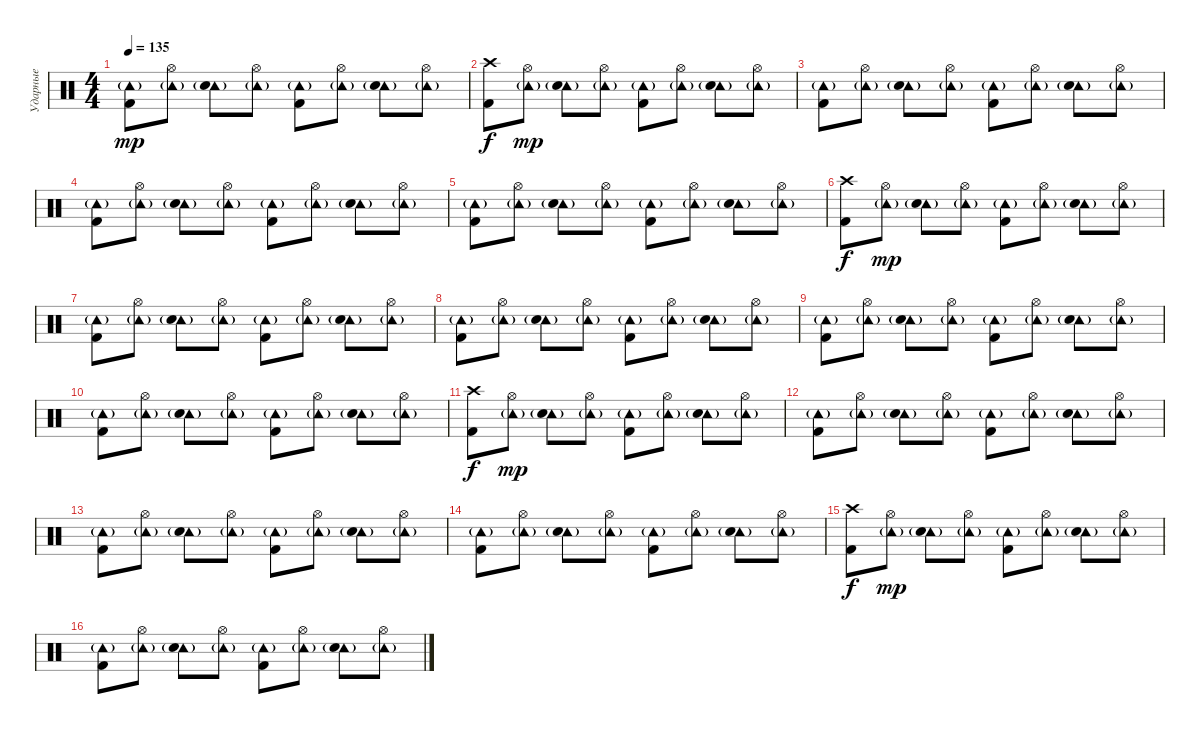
\track ("Ударные" "Ударные") {instrument percussion}
\staff {score}
\articulation defaults
\ts (4 4)
\tempo 135
\clef neutral
\ks c
("Tambourine (hit)"{g} "Kick (hit) 2").8{dy mp} ("Tambourine (hit)"{g} "Hi-Hat (open)").8 ("Tambourine (hit)"{g} "Electric Snare (hit)").8 ("Tambourine (hit)"{g} "Hi-Hat (open)").8 ("Tambourine (hit)"{g} "Kick (hit) 2").8 ("Tambourine (hit)"{g} "Hi-Hat (open)").8 ("Tambourine (hit)"{g} "Electric Snare (hit)").8 ("Tambourine (hit)"{g} "Hi-Hat (open)").8 |
("Crash high (hit)" "Kick (hit) 2").8{dy f} ("Tambourine (hit)"{g} "Hi-Hat (open)").8{dy mp} ("Tambourine (hit)"{g} "Electric Snare (hit)").8 ("Tambourine (hit)"{g} "Hi-Hat (open)").8 ("Tambourine (hit)"{g} "Kick (hit) 2").8 ("Tambourine (hit)"{g} "Hi-Hat (open)").8 ("Tambourine (hit)"{g} "Electric Snare (hit)").8 ("Tambourine (hit)"{g} "Hi-Hat (open)").8 |
("Tambourine (hit)"{g} "Kick (hit) 2").8 ("Tambourine (hit)"{g} "Hi-Hat (open)").8 ("Tambourine (hit)"{g} "Electric Snare (hit)").8 ("Tambourine (hit)"{g} "Hi-Hat (open)").8 ("Tambourine (hit)"{g} "Kick (hit) 2").8 ("Tambourine (hit)"{g} "Hi-Hat (open)").8 ("Tambourine (hit)"{g} "Electric Snare (hit)").8 ("Tambourine (hit)"{g} "Hi-Hat (open)").8 |
("Tambourine (hit)"{g} "Kick (hit) 2").8 ("Tambourine (hit)"{g} "Hi-Hat (open)").8 ("Tambourine (hit)"{g} "Electric Snare (hit)").8 ("Tambourine (hit)"{g} "Hi-Hat (open)").8 ("Tambourine (hit)"{g} "Kick (hit) 2").8 ("Tambourine (hit)"{g} "Hi-Hat (open)").8 ("Tambourine (hit)"{g} "Electric Snare (hit)").8 ("Tambourine (hit)"{g} "Hi-Hat (open)").8 |
("Tambourine (hit)"{g} "Kick (hit) 2").8 ("Tambourine (hit)"{g} "Hi-Hat (open)").8 ("Tambourine (hit)"{g} "Electric Snare (hit)").8 ("Tambourine (hit)"{g} "Hi-Hat (open)").8 ("Tambourine (hit)"{g} "Kick (hit) 2").8 ("Tambourine (hit)"{g} "Hi-Hat (open)").8 ("Tambourine (hit)"{g} "Electric Snare (hit)").8 ("Tambourine (hit)"{g} "Hi-Hat (open)").8 |
("Crash high (hit)" "Kick (hit) 2").8{dy f} ("Tambourine (hit)"{g} "Hi-Hat (open)").8{dy mp} ("Tambourine (hit)"{g} "Electric Snare (hit)").8 ("Tambourine (hit)"{g} "Hi-Hat (open)").8 ("Tambourine (hit)"{g} "Kick (hit) 2").8 ("Tambourine (hit)"{g} "Hi-Hat (open)").8 ("Tambourine (hit)"{g} "Electric Snare (hit)").8 ("Tambourine (hit)"{g} "Hi-Hat (open)").8 |
("Tambourine (hit)"{g} "Kick (hit) 2").8 ("Tambourine (hit)"{g} "Hi-Hat (open)").8 ("Tambourine (hit)"{g} "Electric Snare (hit)").8 ("Tambourine (hit)"{g} "Hi-Hat (open)").8 ("Tambourine (hit)"{g} "Kick (hit) 2").8 ("Tambourine (hit)"{g} "Hi-Hat (open)").8 ("Tambourine (hit)"{g} "Electric Snare (hit)").8 ("Tambourine (hit)"{g} "Hi-Hat (open)").8 |
("Tambourine (hit)"{g} "Kick (hit) 2").8 ("Tambourine (hit)"{g} "Hi-Hat (open)").8 ("Tambourine (hit)"{g} "Electric Snare (hit)").8 ("Tambourine (hit)"{g} "Hi-Hat (open)").8 ("Tambourine (hit)"{g} "Kick (hit) 2").8 ("Tambourine (hit)"{g} "Hi-Hat (open)").8 ("Tambourine (hit)"{g} "Electric Snare (hit)").8 ("Tambourine (hit)"{g} "Hi-Hat (open)").8 |
("Tambourine (hit)"{g} "Kick (hit) 2").8 ("Tambourine (hit)"{g} "Hi-Hat (open)").8 ("Tambourine (hit)"{g} "Electric Snare (hit)").8 ("Tambourine (hit)"{g} "Hi-Hat (open)").8 ("Tambourine (hit)"{g} "Kick (hit) 2").8 ("Tambourine (hit)"{g} "Hi-Hat (open)").8 ("Tambourine (hit)"{g} "Electric Snare (hit)").8 ("Tambourine (hit)"{g} "Hi-Hat (open)").8 |
("Tambourine (hit)"{g} "Kick (hit) 2").8 ("Tambourine (hit)"{g} "Hi-Hat (open)").8 ("Tambourine (hit)"{g} "Electric Snare (hit)").8 ("Tambourine (hit)"{g} "Hi-Hat (open)").8 ("Tambourine (hit)"{g} "Kick (hit) 2").8 ("Tambourine (hit)"{g} "Hi-Hat (open)").8 ("Tambourine (hit)"{g} "Electric Snare (hit)").8 ("Tambourine (hit)"{g} "Hi-Hat (open)").8 |
("Crash high (hit)" "Kick (hit) 2").8{dy f} ("Tambourine (hit)"{g} "Hi-Hat (open)").8{dy mp} ("Tambourine (hit)"{g} "Electric Snare (hit)").8 ("Tambourine (hit)"{g} "Hi-Hat (open)").8 ("Tambourine (hit)"{g} "Kick (hit) 2").8 ("Tambourine (hit)"{g} "Hi-Hat (open)").8 ("Tambourine (hit)"{g} "Electric Snare (hit)").8 ("Tambourine (hit)"{g} "Hi-Hat (open)").8 |
("Tambourine (hit)"{g} "Kick (hit) 2").8 ("Tambourine (hit)"{g} "Hi-Hat (open)").8 ("Tambourine (hit)"{g} "Electric Snare (hit)").8 ("Tambourine (hit)"{g} "Hi-Hat (open)").8 ("Tambourine (hit)"{g} "Kick (hit) 2").8 ("Tambourine (hit)"{g} "Hi-Hat (open)").8 ("Tambourine (hit)"{g} "Electric Snare (hit)").8 ("Tambourine (hit)"{g} "Hi-Hat (open)").8 |
("Tambourine (hit)"{g} "Kick (hit) 2").8 ("Tambourine (hit)"{g} "Hi-Hat (open)").8 ("Tambourine (hit)"{g} "Electric Snare (hit)").8 ("Tambourine (hit)"{g} "Hi-Hat (open)").8 ("Tambourine (hit)"{g} "Kick (hit) 2").8 ("Tambourine (hit)"{g} "Hi-Hat (open)").8 ("Tambourine (hit)"{g} "Electric Snare (hit)").8 ("Tambourine (hit)"{g} "Hi-Hat (open)").8 |
("Tambourine (hit)"{g} "Kick (hit) 2").8 ("Tambourine (hit)"{g} "Hi-Hat (open)").8 ("Tambourine (hit)"{g} "Electric Snare (hit)").8 ("Tambourine (hit)"{g} "Hi-Hat (open)").8 ("Tambourine (hit)"{g} "Kick (hit) 2").8 ("Tambourine (hit)"{g} "Hi-Hat (open)").8 ("Tambourine (hit)"{g} "Electric Snare (hit)").8 ("Tambourine (hit)"{g} "Hi-Hat (open)").8 |
("Crash high (hit)" "Kick (hit) 2").8{dy f} ("Tambourine (hit)"{g} "Hi-Hat (open)").8{dy mp} ("Tambourine (hit)"{g} "Electric Snare (hit)").8 ("Tambourine (hit)"{g} "Hi-Hat (open)").8 ("Tambourine (hit)"{g} "Kick (hit) 2").8 ("Tambourine (hit)"{g} "Hi-Hat (open)").8 ("Tambourine (hit)"{g} "Electric Snare (hit)").8 ("Tambourine (hit)"{g} "Hi-Hat (open)").8 |
("Tambourine (hit)"{g} "Kick (hit) 2").8 ("Tambourine (hit)"{g} "Hi-Hat (open)").8 ("Tambourine (hit)"{g} "Electric Snare (hit)").8 ("Tambourine (hit)"{g} "Hi-Hat (open)").8 ("Tambourine (hit)"{g} "Kick (hit) 2").8 ("Tambourine (hit)"{g} "Hi-Hat (open)").8 ("Tambourine (hit)"{g} "Electric Snare (hit)").8 ("Tambourine (hit)"{g} "Hi-Hat (open)").8
